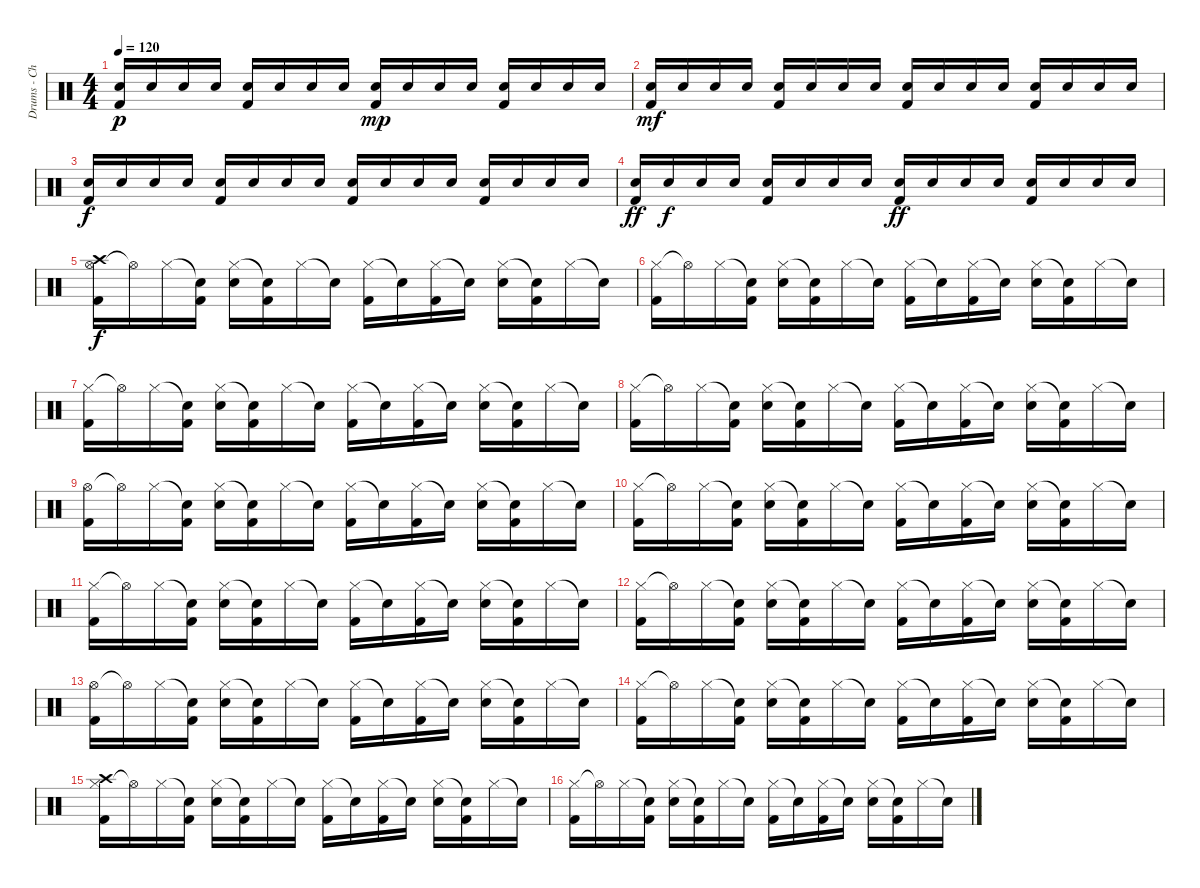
\track ("Drums - Chad" "Drums - Ch") {instrument percussion}
\staff {score}
\articulation defaults
\ts (4 4)
\tempo 120
\clef neutral
\ks c
("Kick (hit) 2" "Electric Snare (hit)").16{dy p} "Electric Snare (hit)".16 "Electric Snare (hit)".16 "Electric Snare (hit)".16 ("Kick (hit) 2" "Electric Snare (hit)").16 "Electric Snare (hit)".16 "Electric Snare (hit)".16 "Electric Snare (hit)".16 ("Kick (hit) 2" "Electric Snare (hit)").16{dy mp} "Electric Snare (hit)".16 "Electric Snare (hit)".16 "Electric Snare (hit)".16 ("Kick (hit) 2" "Electric Snare (hit)").16 "Electric Snare (hit)".16 "Electric Snare (hit)".16 "Electric Snare (hit)".16 |
("Kick (hit) 2" "Electric Snare (hit)").16{dy mf} "Electric Snare (hit)".16 "Electric Snare (hit)".16 "Electric Snare (hit)".16 ("Kick (hit) 2" "Electric Snare (hit)").16 "Electric Snare (hit)".16 "Electric Snare (hit)".16 "Electric Snare (hit)".16 ("Kick (hit) 2" "Electric Snare (hit)").16 "Electric Snare (hit)".16 "Electric Snare (hit)".16 "Electric Snare (hit)".16 ("Kick (hit) 2" "Electric Snare (hit)").16 "Electric Snare (hit)".16 "Electric Snare (hit)".16 "Electric Snare (hit)".16 |
("Kick (hit) 2" "Electric Snare (hit)").16{dy f} "Electric Snare (hit)".16 "Electric Snare (hit)".16 "Electric Snare (hit)".16 ("Kick (hit) 2" "Electric Snare (hit)").16 "Electric Snare (hit)".16 "Electric Snare (hit)".16 "Electric Snare (hit)".16 ("Kick (hit) 2" "Electric Snare (hit)").16 "Electric Snare (hit)".16 "Electric Snare (hit)".16 "Electric Snare (hit)".16 ("Kick (hit) 2" "Electric Snare (hit)").16 "Electric Snare (hit)".16 "Electric Snare (hit)".16 "Electric Snare (hit)".16 |
("Kick (hit) 2" "Electric Snare (hit)").16{dy ff} "Electric Snare (hit)".16{dy f} "Electric Snare (hit)".16 "Electric Snare (hit)".16 ("Kick (hit) 2" "Electric Snare (hit)").16 "Electric Snare (hit)".16 "Electric Snare (hit)".16 "Electric Snare (hit)".16 ("Kick (hit) 2" "Electric Snare (hit)").16{dy ff} "Electric Snare (hit)".16 "Electric Snare (hit)".16 "Electric Snare (hit)".16 ("Kick (hit) 2" "Electric Snare (hit)").16 "Electric Snare (hit)".16 "Electric Snare (hit)".16 "Electric Snare (hit)".16 |
("Hi-Hat (open)" "Kick (hit) 2" "Crash high (hit)").16{dy f} "Hi-Hat (open)"{t}.16 "Hi-Hat (closed)".16 ("Snare (hit)"{t} "Kick (hit) 2").16 ("Hi-Hat (closed)" "Electric Snare (hit)").16 ("Snare (hit)"{t} "Kick (hit) 2").16 "Hi-Hat (closed)".16 "Snare (hit)"{t}.16 ("Hi-Hat (closed)" "Kick (hit) 2").16 "Snare (hit)"{t}.16 ("Hi-Hat (closed)" "Kick (hit) 2").16 "Snare (hit)"{t}.16 ("Hi-Hat (closed)" "Electric Snare (hit)").16 ("Snare (hit)"{t} "Kick (hit) 2").16 "Hi-Hat (closed)".16 "Snare (hit)"{t}.16 |
("Hi-Hat (closed)" "Kick (hit) 2").16 "Hi-Hat (open)"{t}.16 "Hi-Hat (closed)".16 ("Snare (hit)"{t} "Kick (hit) 2").16 ("Hi-Hat (closed)" "Electric Snare (hit)").16 ("Snare (hit)"{t} "Kick (hit) 2").16 "Hi-Hat (closed)".16 "Snare (hit)"{t}.16 ("Hi-Hat (closed)" "Kick (hit) 2").16 "Snare (hit)"{t}.16 ("Hi-Hat (closed)" "Kick (hit) 2").16 "Snare (hit)"{t}.16 ("Hi-Hat (closed)" "Electric Snare (hit)").16 ("Snare (hit)"{t} "Kick (hit) 2").16 "Hi-Hat (closed)".16 "Snare (hit)"{t}.16 |
("Hi-Hat (closed)" "Kick (hit) 2").16 "Hi-Hat (open)"{t}.16 "Hi-Hat (closed)".16 ("Snare (hit)"{t} "Kick (hit) 2").16 ("Hi-Hat (closed)" "Electric Snare (hit)").16 ("Snare (hit)"{t} "Kick (hit) 2").16 "Hi-Hat (closed)".16 "Snare (hit)"{t}.16 ("Hi-Hat (closed)" "Kick (hit) 2").16 "Snare (hit)"{t}.16 ("Hi-Hat (closed)" "Kick (hit) 2").16 "Snare (hit)"{t}.16 ("Hi-Hat (closed)" "Electric Snare (hit)").16 ("Snare (hit)"{t} "Kick (hit) 2").16 "Hi-Hat (closed)".16 "Snare (hit)"{t}.16 |
("Hi-Hat (closed)" "Kick (hit) 2").16 "Hi-Hat (open)"{t}.16 "Hi-Hat (closed)".16 ("Snare (hit)"{t} "Kick (hit) 2").16 ("Hi-Hat (closed)" "Electric Snare (hit)").16 ("Snare (hit)"{t} "Kick (hit) 2").16 "Hi-Hat (closed)".16 "Snare (hit)"{t}.16 ("Hi-Hat (closed)" "Kick (hit) 2").16 "Snare (hit)"{t}.16 ("Hi-Hat (closed)" "Kick (hit) 2").16 "Snare (hit)"{t}.16 ("Hi-Hat (closed)" "Electric Snare (hit)").16 ("Snare (hit)"{t} "Kick (hit) 2").16 "Hi-Hat (closed)".16 "Snare (hit)"{t}.16 |
("Hi-Hat (open)" "Kick (hit) 2").16 "Hi-Hat (open)"{t}.16 "Hi-Hat (closed)".16 ("Snare (hit)"{t} "Kick (hit) 2").16 ("Hi-Hat (closed)" "Electric Snare (hit)").16 ("Snare (hit)"{t} "Kick (hit) 2").16 "Hi-Hat (closed)".16 "Snare (hit)"{t}.16 ("Hi-Hat (closed)" "Kick (hit) 2").16 "Snare (hit)"{t}.16 ("Hi-Hat (closed)" "Kick (hit) 2").16 "Snare (hit)"{t}.16 ("Hi-Hat (closed)" "Electric Snare (hit)").16 ("Snare (hit)"{t} "Kick (hit) 2").16 "Hi-Hat (closed)".16 "Snare (hit)"{t}.16 |
("Hi-Hat (closed)" "Kick (hit) 2").16 "Hi-Hat (open)"{t}.16 "Hi-Hat (closed)".16 ("Snare (hit)"{t} "Kick (hit) 2").16 ("Hi-Hat (closed)" "Electric Snare (hit)").16 ("Snare (hit)"{t} "Kick (hit) 2").16 "Hi-Hat (closed)".16 "Snare (hit)"{t}.16 ("Hi-Hat (closed)" "Kick (hit) 2").16 "Snare (hit)"{t}.16 ("Hi-Hat (closed)" "Kick (hit) 2").16 "Snare (hit)"{t}.16 ("Hi-Hat (closed)" "Electric Snare (hit)").16 ("Snare (hit)"{t} "Kick (hit) 2").16 "Hi-Hat (closed)".16 "Snare (hit)"{t}.16 |
("Hi-Hat (closed)" "Kick (hit) 2").16 "Hi-Hat (open)"{t}.16 "Hi-Hat (closed)".16 ("Snare (hit)"{t} "Kick (hit) 2").16 ("Hi-Hat (closed)" "Electric Snare (hit)").16 ("Snare (hit)"{t} "Kick (hit) 2").16 "Hi-Hat (closed)".16 "Snare (hit)"{t}.16 ("Hi-Hat (closed)" "Kick (hit) 2").16 "Snare (hit)"{t}.16 ("Hi-Hat (closed)" "Kick (hit) 2").16 "Snare (hit)"{t}.16 ("Hi-Hat (closed)" "Electric Snare (hit)").16 ("Snare (hit)"{t} "Kick (hit) 2").16 "Hi-Hat (closed)".16 "Snare (hit)"{t}.16 |
("Hi-Hat (closed)" "Kick (hit) 2").16 "Hi-Hat (open)"{t}.16 "Hi-Hat (closed)".16 ("Snare (hit)"{t} "Kick (hit) 2").16 ("Hi-Hat (closed)" "Electric Snare (hit)").16 ("Snare (hit)"{t} "Kick (hit) 2").16 "Hi-Hat (closed)".16 "Snare (hit)"{t}.16 ("Hi-Hat (closed)" "Kick (hit) 2").16 "Snare (hit)"{t}.16 ("Hi-Hat (closed)" "Kick (hit) 2").16 "Snare (hit)"{t}.16 ("Hi-Hat (closed)" "Electric Snare (hit)").16 ("Snare (hit)"{t} "Kick (hit) 2").16 "Hi-Hat (closed)".16 "Snare (hit)"{t}.16 |
("Hi-Hat (open)" "Kick (hit) 2").16 "Hi-Hat (open)"{t}.16 "Hi-Hat (closed)".16 ("Snare (hit)"{t} "Kick (hit) 2").16 ("Hi-Hat (closed)" "Electric Snare (hit)").16 ("Snare (hit)"{t} "Kick (hit) 2").16 "Hi-Hat (closed)".16 "Snare (hit)"{t}.16 ("Hi-Hat (closed)" "Kick (hit) 2").16 "Snare (hit)"{t}.16 ("Hi-Hat (closed)" "Kick (hit) 2").16 "Snare (hit)"{t}.16 ("Hi-Hat (closed)" "Electric Snare (hit)").16 ("Snare (hit)"{t} "Kick (hit) 2").16 "Hi-Hat (closed)".16 "Snare (hit)"{t}.16 |
("Hi-Hat (closed)" "Kick (hit) 2").16 "Hi-Hat (open)"{t}.16 "Hi-Hat (closed)".16 ("Snare (hit)"{t} "Kick (hit) 2").16 ("Hi-Hat (closed)" "Electric Snare (hit)").16 ("Snare (hit)"{t} "Kick (hit) 2").16 "Hi-Hat (closed)".16 "Snare (hit)"{t}.16 ("Hi-Hat (closed)" "Kick (hit) 2").16 "Snare (hit)"{t}.16 ("Hi-Hat (closed)" "Kick (hit) 2").16 "Snare (hit)"{t}.16 ("Hi-Hat (closed)" "Electric Snare (hit)").16 ("Snare (hit)"{t} "Kick (hit) 2").16 "Hi-Hat (closed)".16 "Snare (hit)"{t}.16 |
("Hi-Hat (closed)" "Kick (hit) 2" "Crash high (hit)").16 "Hi-Hat (open)"{t}.16 "Hi-Hat (closed)".16 ("Snare (hit)"{t} "Kick (hit) 2").16 ("Hi-Hat (closed)" "Electric Snare (hit)").16 ("Snare (hit)"{t} "Kick (hit) 2").16 "Hi-Hat (closed)".16 "Snare (hit)"{t}.16 ("Hi-Hat (closed)" "Kick (hit) 2").16 "Snare (hit)"{t}.16 ("Hi-Hat (closed)" "Kick (hit) 2").16 "Snare (hit)"{t}.16 ("Hi-Hat (closed)" "Electric Snare (hit)").16 ("Snare (hit)"{t} "Kick (hit) 2").16 "Hi-Hat (closed)".16 "Snare (hit)"{t}.16 |
("Hi-Hat (closed)" "Kick (hit) 2").16 "Hi-Hat (open)"{t}.16 "Hi-Hat (closed)".16 ("Snare (hit)"{t} "Kick (hit) 2").16 ("Hi-Hat (closed)" "Electric Snare (hit)").16 ("Snare (hit)"{t} "Kick (hit) 2").16 "Hi-Hat (closed)".16 "Snare (hit)"{t}.16 ("Hi-Hat (closed)" "Kick (hit) 2").16 "Snare (hit)"{t}.16 ("Hi-Hat (closed)" "Kick (hit) 2").16 "Snare (hit)"{t}.16 ("Hi-Hat (closed)" "Electric Snare (hit)").16 ("Snare (hit)"{t} "Kick (hit) 2").16 "Hi-Hat (closed)".16 "Snare (hit)"{t}.16
